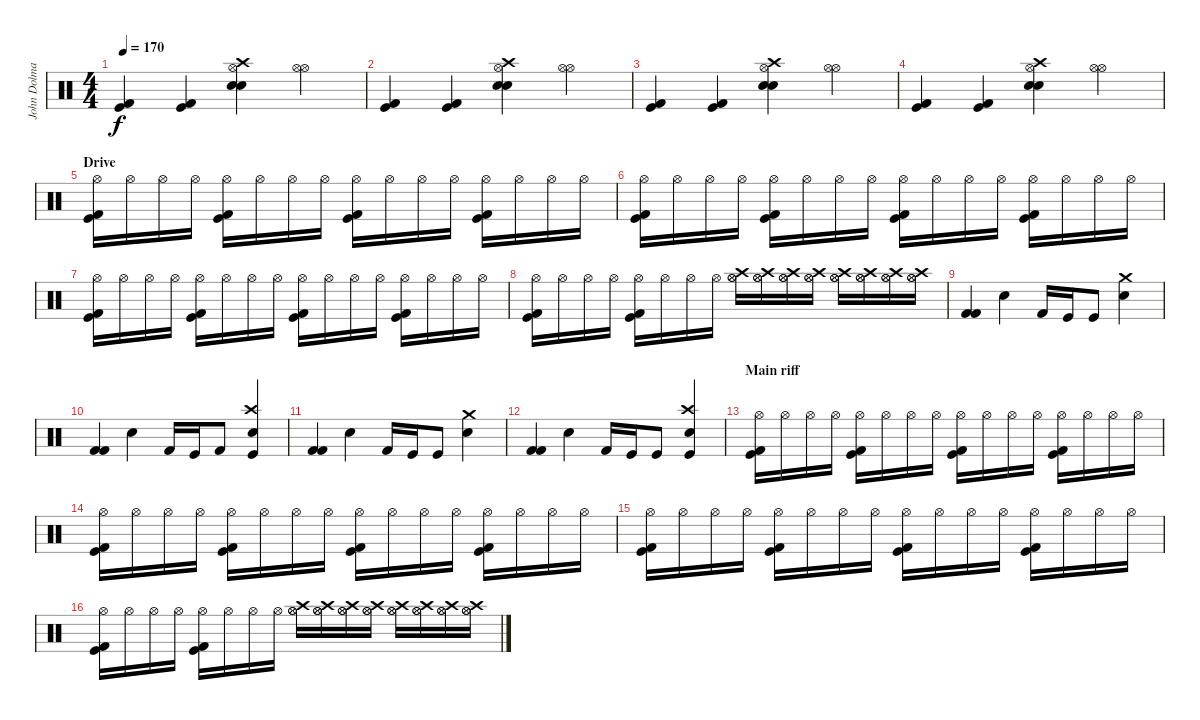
\track ("John Dolmayan" "John Dolma") {instrument percussion}
\staff {score}
\articulation defaults
\ts (4 4)
\tempo 170
\clef neutral
\ks c
("Kick (hit)" "Kick (hit) 2").4{dy f} ("Kick (hit)" "Kick (hit) 2").4 ("Hi-Hat (open)" "Snare (hit) 2" "Crash high (hit)" "Electric Snare (hit)").4 ("Hi-Hat (open)" "Hi-Hat (open)").4 |
("Kick (hit)" "Kick (hit) 2").4 ("Kick (hit)" "Kick (hit) 2").4 ("Hi-Hat (open)" "Snare (hit) 2" "Crash high (hit)" "Electric Snare (hit)").4 ("Hi-Hat (open)" "Hi-Hat (open)").4 |
("Kick (hit)" "Kick (hit) 2").4 ("Kick (hit)" "Kick (hit) 2").4 ("Hi-Hat (open)" "Snare (hit) 2" "Crash high (hit)" "Electric Snare (hit)").4 ("Hi-Hat (open)" "Hi-Hat (open)").4 |
("Kick (hit)" "Kick (hit) 2").4 ("Kick (hit)" "Kick (hit) 2").4 ("Hi-Hat (open)" "Snare (hit) 2" "Crash high (hit)" "Electric Snare (hit)").4 ("Hi-Hat (open)" "Hi-Hat (open)").4 |
\section ("" "Drive")
("Kick (hit) 2" "Kick (hit)" "Hi-Hat (open)").16 "Hi-Hat (open)".16 "Hi-Hat (open)".16 "Hi-Hat (open)".16 ("Kick (hit) 2" "Kick (hit)" "Hi-Hat (open)").16 "Hi-Hat (open)".16 "Hi-Hat (open)".16 "Hi-Hat (open)".16 ("Kick (hit) 2" "Kick (hit)" "Hi-Hat (open)").16 "Hi-Hat (open)".16 "Hi-Hat (open)".16 "Hi-Hat (open)".16 ("Kick (hit) 2" "Kick (hit)" "Hi-Hat (open)").16 "Hi-Hat (open)".16 "Hi-Hat (open)".16 "Hi-Hat (open)".16 |
("Kick (hit) 2" "Kick (hit)" "Hi-Hat (open)").16 "Hi-Hat (open)".16 "Hi-Hat (open)".16 "Hi-Hat (open)".16 ("Kick (hit) 2" "Kick (hit)" "Hi-Hat (open)").16 "Hi-Hat (open)".16 "Hi-Hat (open)".16 "Hi-Hat (open)".16 ("Kick (hit) 2" "Kick (hit)" "Hi-Hat (open)").16 "Hi-Hat (open)".16 "Hi-Hat (open)".16 "Hi-Hat (open)".16 ("Kick (hit) 2" "Kick (hit)" "Hi-Hat (open)").16 "Hi-Hat (open)".16 "Hi-Hat (open)".16 "Hi-Hat (open)".16 |
("Kick (hit) 2" "Kick (hit)" "Hi-Hat (open)").16 "Hi-Hat (open)".16 "Hi-Hat (open)".16 "Hi-Hat (open)".16 ("Kick (hit) 2" "Kick (hit)" "Hi-Hat (open)").16 "Hi-Hat (open)".16 "Hi-Hat (open)".16 "Hi-Hat (open)".16 ("Kick (hit) 2" "Kick (hit)" "Hi-Hat (open)").16 "Hi-Hat (open)".16 "Hi-Hat (open)".16 "Hi-Hat (open)".16 ("Kick (hit) 2" "Kick (hit)" "Hi-Hat (open)").16 "Hi-Hat (open)".16 "Hi-Hat (open)".16 "Hi-Hat (open)".16 |
("Kick (hit) 2" "Kick (hit)" "Hi-Hat (open)").16 "Hi-Hat (open)".16 "Hi-Hat (open)".16 "Hi-Hat (open)".16 ("Kick (hit) 2" "Kick (hit)" "Hi-Hat (open)").16 "Hi-Hat (open)".16 "Hi-Hat (open)".16 "Hi-Hat (open)".16 ("Crash high (hit)" "Hi-Hat (open)" "Hi-Hat (open)").16 ("Crash high (hit)" "Hi-Hat (open)" "Hi-Hat (open)").16 ("Crash high (hit)" "Hi-Hat (open)" "Hi-Hat (open)").16 ("Crash high (hit)" "Hi-Hat (open)" "Hi-Hat (open)").16 ("Crash high (hit)" "Hi-Hat (open)" "Hi-Hat (open)").16 ("Crash high (hit)" "Hi-Hat (open)" "Hi-Hat (open)").16 ("Crash high (hit)" "Hi-Hat (open)" "Hi-Hat (open)").16 ("Crash high (hit)" "Hi-Hat (open)" "Hi-Hat (open)").16 |
("Kick (hit) 2" "Kick (hit) 2").4 "Snare (hit) 2".4 "Kick (hit) 2".16 "Kick (hit)".16 "Kick (hit)".8 ("Crash medium (hit)" "Snare (hit) 2").4 |
("Kick (hit) 2" "Kick (hit) 2").4 "Snare (hit) 2".4 "Kick (hit) 2".16 "Kick (hit)".16 "Kick (hit) 2".8 ("Crash high (hit)" "Electric Snare (hit)" "Kick (hit)").4 |
("Kick (hit) 2" "Kick (hit) 2").4 "Snare (hit) 2".4 "Kick (hit) 2".16 "Kick (hit)".16 "Kick (hit)".8 ("Crash medium (hit)" "Snare (hit) 2").4 |
("Kick (hit) 2" "Kick (hit) 2").4 "Snare (hit) 2".4 "Kick (hit) 2".16 "Kick (hit)".16 "Kick (hit)".8 ("Crash high (hit)" "Electric Snare (hit)" "Kick (hit)").4 |
\section ("" "Main riff")
("Kick (hit) 2" "Kick (hit)" "Hi-Hat (open)").16 "Hi-Hat (open)".16 "Hi-Hat (open)".16 "Hi-Hat (open)".16 ("Kick (hit) 2" "Kick (hit)" "Hi-Hat (open)").16 "Hi-Hat (open)".16 "Hi-Hat (open)".16 "Hi-Hat (open)".16 ("Kick (hit) 2" "Kick (hit)" "Hi-Hat (open)").16 "Hi-Hat (open)".16 "Hi-Hat (open)".16 "Hi-Hat (open)".16 ("Kick (hit) 2" "Kick (hit)" "Hi-Hat (open)").16 "Hi-Hat (open)".16 "Hi-Hat (open)".16 "Hi-Hat (open)".16 |
("Kick (hit) 2" "Kick (hit)" "Hi-Hat (open)").16 "Hi-Hat (open)".16 "Hi-Hat (open)".16 "Hi-Hat (open)".16 ("Kick (hit) 2" "Kick (hit)" "Hi-Hat (open)").16 "Hi-Hat (open)".16 "Hi-Hat (open)".16 "Hi-Hat (open)".16 ("Kick (hit) 2" "Kick (hit)" "Hi-Hat (open)").16 "Hi-Hat (open)".16 "Hi-Hat (open)".16 "Hi-Hat (open)".16 ("Kick (hit) 2" "Kick (hit)" "Hi-Hat (open)").16 "Hi-Hat (open)".16 "Hi-Hat (open)".16 "Hi-Hat (open)".16 |
("Kick (hit) 2" "Kick (hit)" "Hi-Hat (open)").16 "Hi-Hat (open)".16 "Hi-Hat (open)".16 "Hi-Hat (open)".16 ("Kick (hit) 2" "Kick (hit)" "Hi-Hat (open)").16 "Hi-Hat (open)".16 "Hi-Hat (open)".16 "Hi-Hat (open)".16 ("Kick (hit) 2" "Kick (hit)" "Hi-Hat (open)").16 "Hi-Hat (open)".16 "Hi-Hat (open)".16 "Hi-Hat (open)".16 ("Kick (hit) 2" "Kick (hit)" "Hi-Hat (open)").16 "Hi-Hat (open)".16 "Hi-Hat (open)".16 "Hi-Hat (open)".16 |
("Kick (hit) 2" "Kick (hit)" "Hi-Hat (open)").16 "Hi-Hat (open)".16 "Hi-Hat (open)".16 "Hi-Hat (open)".16 ("Kick (hit) 2" "Kick (hit)" "Hi-Hat (open)").16 "Hi-Hat (open)".16 "Hi-Hat (open)".16 "Hi-Hat (open)".16 ("Crash high (hit)" "Hi-Hat (open)" "Hi-Hat (open)").16 ("Crash high (hit)" "Hi-Hat (open)" "Hi-Hat (open)").16 ("Crash high (hit)" "Hi-Hat (open)" "Hi-Hat (open)").16 ("Crash high (hit)" "Hi-Hat (open)" "Hi-Hat (open)").16 ("Crash high (hit)" "Hi-Hat (open)" "Hi-Hat (open)").16 ("Crash high (hit)" "Hi-Hat (open)" "Hi-Hat (open)").16 ("Crash high (hit)" "Hi-Hat (open)" "Hi-Hat (open)").16 ("Crash high (hit)" "Hi-Hat (open)" "Hi-Hat (open)").16
